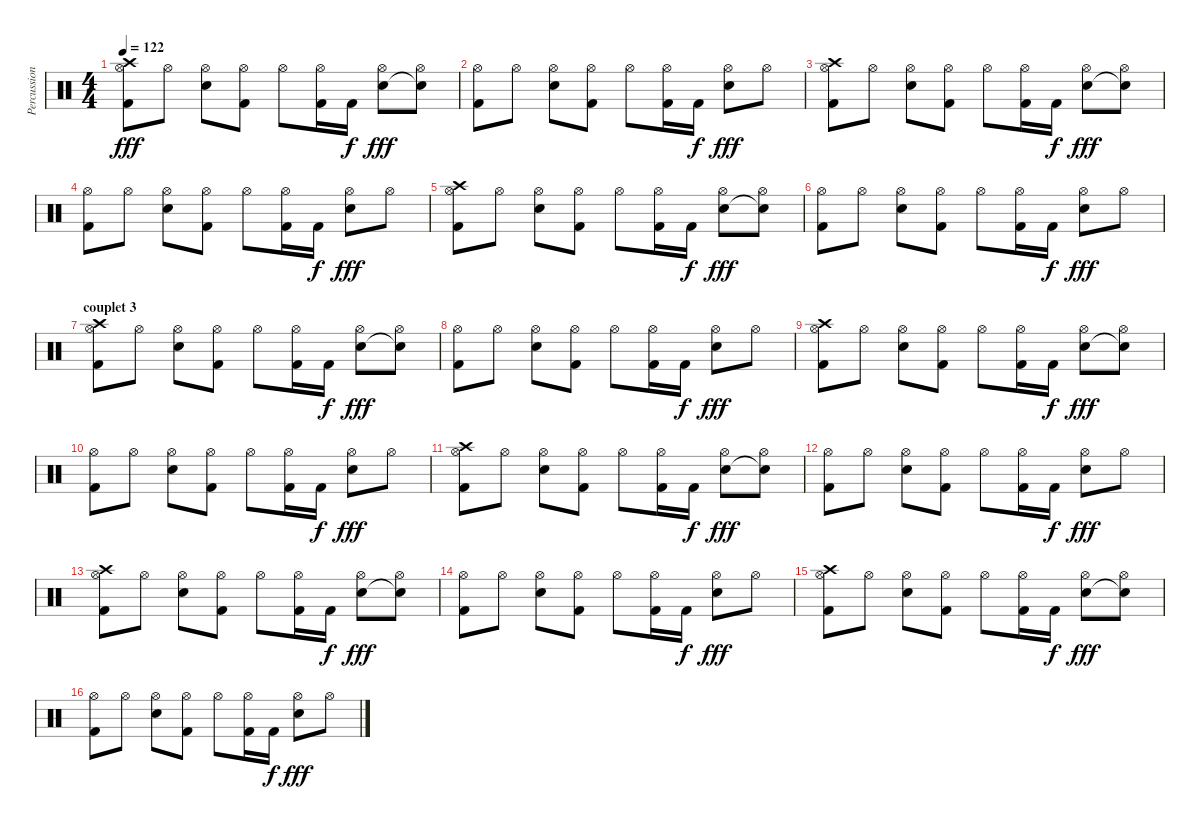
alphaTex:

\track ("Percussions" "Percussion") {instrument percussion}
\staff {score}
\articulation defaults
\ts (4 4)
\tempo 122
\clef neutral
\ks c
("Hi-Hat (open)" "Crash high (hit)" "Kick (hit) 2").8{dy fff} "Hi-Hat (open)".8 ("Hi-Hat (open)" "Electric Snare (hit)").8 ("Hi-Hat (open)" "Kick (hit) 2").8 "Hi-Hat (open)".8 ("Hi-Hat (open)" "Kick (hit) 2").16 "Kick (hit) 2".16{dy f} ("Hi-Hat (open)" "Electric Snare (hit)").8{dy fff} ("Hi-Hat (open)" "Snare (hit)"{t}).8 |
("Hi-Hat (open)" "Kick (hit) 2").8 "Hi-Hat (open)".8 ("Hi-Hat (open)" "Electric Snare (hit)").8 ("Hi-Hat (open)" "Kick (hit) 2").8 "Hi-Hat (open)".8 ("Hi-Hat (open)" "Kick (hit) 2").16 "Kick (hit) 2".16{dy f} ("Hi-Hat (open)" "Electric Snare (hit)").8{dy fff} "Hi-Hat (open)".8 |
("Hi-Hat (open)" "Crash high (hit)" "Kick (hit) 2").8 "Hi-Hat (open)".8 ("Hi-Hat (open)" "Electric Snare (hit)").8 ("Hi-Hat (open)" "Kick (hit) 2").8 "Hi-Hat (open)".8 ("Hi-Hat (open)" "Kick (hit) 2").16 "Kick (hit) 2".16{dy f} ("Hi-Hat (open)" "Electric Snare (hit)").8{dy fff} ("Hi-Hat (open)" "Snare (hit)"{t}).8 |
("Hi-Hat (open)" "Kick (hit) 2").8 "Hi-Hat (open)".8 ("Hi-Hat (open)" "Electric Snare (hit)").8 ("Hi-Hat (open)" "Kick (hit) 2").8 "Hi-Hat (open)".8 ("Hi-Hat (open)" "Kick (hit) 2").16 "Kick (hit) 2".16{dy f} ("Hi-Hat (open)" "Electric Snare (hit)").8{dy fff} "Hi-Hat (open)".8 |
("Hi-Hat (open)" "Crash high (hit)" "Kick (hit) 2").8 "Hi-Hat (open)".8 ("Hi-Hat (open)" "Electric Snare (hit)").8 ("Hi-Hat (open)" "Kick (hit) 2").8 "Hi-Hat (open)".8 ("Hi-Hat (open)" "Kick (hit) 2").16 "Kick (hit) 2".16{dy f} ("Hi-Hat (open)" "Electric Snare (hit)").8{dy fff} ("Hi-Hat (open)" "Snare (hit)"{t}).8 |
("Hi-Hat (open)" "Kick (hit) 2").8 "Hi-Hat (open)".8 ("Hi-Hat (open)" "Electric Snare (hit)").8 ("Hi-Hat (open)" "Kick (hit) 2").8 "Hi-Hat (open)".8 ("Hi-Hat (open)" "Kick (hit) 2").16 "Kick (hit) 2".16{dy f} ("Hi-Hat (open)" "Electric Snare (hit)").8{dy fff} "Hi-Hat (open)".8 |
\section ("" "couplet 3")
("Hi-Hat (open)" "Crash high (hit)" "Kick (hit) 2").8 "Hi-Hat (open)".8 ("Hi-Hat (open)" "Electric Snare (hit)").8 ("Hi-Hat (open)" "Kick (hit) 2").8 "Hi-Hat (open)".8 ("Hi-Hat (open)" "Kick (hit) 2").16 "Kick (hit) 2".16{dy f} ("Hi-Hat (open)" "Electric Snare (hit)").8{dy fff} ("Hi-Hat (open)" "Snare (hit)"{t}).8 |
("Hi-Hat (open)" "Kick (hit) 2").8 "Hi-Hat (open)".8 ("Hi-Hat (open)" "Electric Snare (hit)").8 ("Hi-Hat (open)" "Kick (hit) 2").8 "Hi-Hat (open)".8 ("Hi-Hat (open)" "Kick (hit) 2").16 "Kick (hit) 2".16{dy f} ("Hi-Hat (open)" "Electric Snare (hit)").8{dy fff} "Hi-Hat (open)".8 |
("Hi-Hat (open)" "Crash high (hit)" "Kick (hit) 2").8 "Hi-Hat (open)".8 ("Hi-Hat (open)" "Electric Snare (hit)").8 ("Hi-Hat (open)" "Kick (hit) 2").8 "Hi-Hat (open)".8 ("Hi-Hat (open)" "Kick (hit) 2").16 "Kick (hit) 2".16{dy f} ("Hi-Hat (open)" "Electric Snare (hit)").8{dy fff} ("Hi-Hat (open)" "Snare (hit)"{t}).8 |
("Hi-Hat (open)" "Kick (hit) 2").8 "Hi-Hat (open)".8 ("Hi-Hat (open)" "Electric Snare (hit)").8 ("Hi-Hat (open)" "Kick (hit) 2").8 "Hi-Hat (open)".8 ("Hi-Hat (open)" "Kick (hit) 2").16 "Kick (hit) 2".16{dy f} ("Hi-Hat (open)" "Electric Snare (hit)").8{dy fff} "Hi-Hat (open)".8 |
("Hi-Hat (open)" "Crash high (hit)" "Kick (hit) 2").8 "Hi-Hat (open)".8 ("Hi-Hat (open)" "Electric Snare (hit)").8 ("Hi-Hat (open)" "Kick (hit) 2").8 "Hi-Hat (open)".8 ("Hi-Hat (open)" "Kick (hit) 2").16 "Kick (hit) 2".16{dy f} ("Hi-Hat (open)" "Electric Snare (hit)").8{dy fff} ("Hi-Hat (open)" "Snare (hit)"{t}).8 |
("Hi-Hat (open)" "Kick (hit) 2").8 "Hi-Hat (open)".8 ("Hi-Hat (open)" "Electric Snare (hit)").8 ("Hi-Hat (open)" "Kick (hit) 2").8 "Hi-Hat (open)".8 ("Hi-Hat (open)" "Kick (hit) 2").16 "Kick (hit) 2".16{dy f} ("Hi-Hat (open)" "Electric Snare (hit)").8{dy fff} "Hi-Hat (open)".8 |
("Hi-Hat (open)" "Crash high (hit)" "Kick (hit) 2").8 "Hi-Hat (open)".8 ("Hi-Hat (open)" "Electric Snare (hit)").8 ("Hi-Hat (open)" "Kick (hit) 2").8 "Hi-Hat (open)".8 ("Hi-Hat (open)" "Kick (hit) 2").16 "Kick (hit) 2".16{dy f} ("Hi-Hat (open)" "Electric Snare (hit)").8{dy fff} ("Hi-Hat (open)" "Snare (hit)"{t}).8 |
("Hi-Hat (open)" "Kick (hit) 2").8 "Hi-Hat (open)".8 ("Hi-Hat (open)" "Electric Snare (hit)").8 ("Hi-Hat (open)" "Kick (hit) 2").8 "Hi-Hat (open)".8 ("Hi-Hat (open)" "Kick (hit) 2").16 "Kick (hit) 2".16{dy f} ("Hi-Hat (open)" "Electric Snare (hit)").8{dy fff} "Hi-Hat (open)".8 |
("Hi-Hat (open)" "Crash high (hit)" "Kick (hit) 2").8 "Hi-Hat (open)".8 ("Hi-Hat (open)" "Electric Snare (hit)").8 ("Hi-Hat (open)" "Kick (hit) 2").8 "Hi-Hat (open)".8 ("Hi-Hat (open)" "Kick (hit) 2").16 "Kick (hit) 2".16{dy f} ("Hi-Hat (open)" "Electric Snare (hit)").8{dy fff} ("Hi-Hat (open)" "Snare (hit)"{t}).8 |
("Hi-Hat (open)" "Kick (hit) 2").8 "Hi-Hat (open)".8 ("Hi-Hat (open)" "Electric Snare (hit)").8 ("Hi-Hat (open)" "Kick (hit) 2").8 "Hi-Hat (open)".8 ("Hi-Hat (open)" "Kick (hit) 2").16 "Kick (hit) 2".16{dy f} ("Hi-Hat (open)" "Electric Snare (hit)").8{dy fff} "Hi-Hat (open)".8
